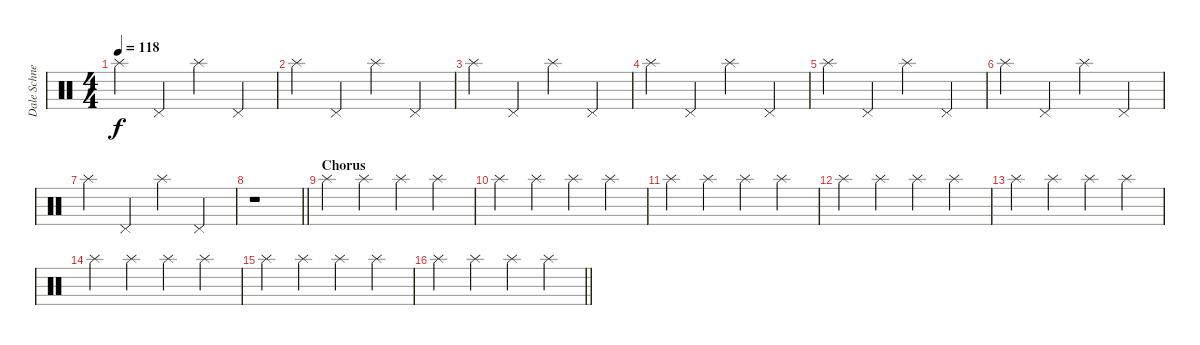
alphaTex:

\track ("Dale Schnettler (Drums)" "Dale Schne") {instrument percussion}
\staff {score}
\articulation defaults
\ts (4 4)
\tempo 118
\clef neutral
\ks c "Splash (hit)".4{dy f} "Pedal Hi-Hat (hit)".4 "Splash (hit)".4 "Pedal Hi-Hat (hit)".4
|
"Splash (hit)".4 "Pedal Hi-Hat (hit)".4 "Splash (hit)".4 "Pedal Hi-Hat (hit)".4 |
"Splash (hit)".4 "Pedal Hi-Hat (hit)".4 "Splash (hit)".4 "Pedal Hi-Hat (hit)".4 |
"Splash (hit)".4 "Pedal Hi-Hat (hit)".4 "Splash (hit)".4 "Pedal Hi-Hat (hit)".4 |
"Splash (hit)".4 "Pedal Hi-Hat (hit)".4 "Splash (hit)".4 "Pedal Hi-Hat (hit)".4 |
"Splash (hit)".4 "Pedal Hi-Hat (hit)".4 "Splash (hit)".4 "Pedal Hi-Hat (hit)".4 |
"Splash (hit)".4 "Pedal Hi-Hat (hit)".4 "Splash (hit)".4 "Pedal Hi-Hat (hit)".4 |
\barLineRight lightlight
r.1 |
\section ("" "Chorus")
"Splash (hit)".4 "Splash (hit)".4 "Splash (hit)".4 "Splash (hit)".4 |
"Splash (hit)".4 "Splash (hit)".4 "Splash (hit)".4 "Splash (hit)".4 |
"Splash (hit)".4 "Splash (hit)".4 "Splash (hit)".4 "Splash (hit)".4 |
"Splash (hit)".4 "Splash (hit)".4 "Splash (hit)".4 "Splash (hit)".4 |
"Splash (hit)".4 "Splash (hit)".4 "Splash (hit)".4 "Splash (hit)".4 |
"Splash (hit)".4 "Splash (hit)".4 "Splash (hit)".4 "Splash (hit)".4 |
"Splash (hit)".4 "Splash (hit)".4 "Splash (hit)".4 "Splash (hit)".4 |
\barLineRight lightlight "Splash (hit)".4 "Splash (hit)".4 "Splash (hit)".4 "Splash (hit)".4
